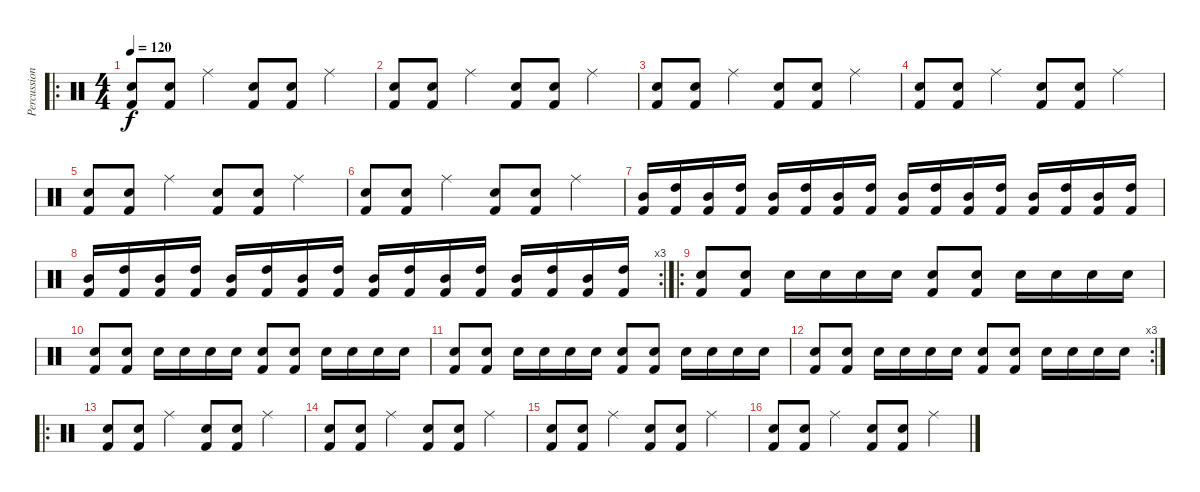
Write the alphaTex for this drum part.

\track ("Percussion" "Percussion") {instrument percussion}
\staff {score}
\articulation defaults
\ro
\ts (4 4)
\tempo 120
\clef neutral
\ks c
("Electric Snare (hit)" "Kick (hit) 2").8{dy f} ("Electric Snare (hit)" "Kick (hit) 2").8 "Ride (middle)".4 ("Electric Snare (hit)" "Kick (hit) 2").8 ("Electric Snare (hit)" "Kick (hit) 2").8 "Ride (middle)".4 |
("Electric Snare (hit)" "Kick (hit) 2").8 ("Electric Snare (hit)" "Kick (hit) 2").8 "Ride (middle)".4 ("Electric Snare (hit)" "Kick (hit) 2").8 ("Electric Snare (hit)" "Kick (hit) 2").8 "Ride (middle)".4 |
("Electric Snare (hit)" "Kick (hit) 2").8 ("Electric Snare (hit)" "Kick (hit) 2").8 "Ride (middle)".4 ("Electric Snare (hit)" "Kick (hit) 2").8 ("Electric Snare (hit)" "Kick (hit) 2").8 "Ride (middle)".4 |
("Electric Snare (hit)" "Kick (hit) 2").8 ("Electric Snare (hit)" "Kick (hit) 2").8 "Ride (middle)".4 ("Electric Snare (hit)" "Kick (hit) 2").8 ("Electric Snare (hit)" "Kick (hit) 2").8 "Ride (middle)".4 |
("Electric Snare (hit)" "Kick (hit) 2").8 ("Electric Snare (hit)" "Kick (hit) 2").8 "Ride (middle)".4 ("Electric Snare (hit)" "Kick (hit) 2").8 ("Electric Snare (hit)" "Kick (hit) 2").8 "Ride (middle)".4 |
("Electric Snare (hit)" "Kick (hit) 2").8 ("Electric Snare (hit)" "Kick (hit) 2").8 "Ride (middle)".4 ("Electric Snare (hit)" "Kick (hit) 2").8 ("Electric Snare (hit)" "Kick (hit) 2").8 "Ride (middle)".4 |
("Kick (hit) 2" "Mid Tom (hit)").16 ("Kick (hit) 2" "High Tom (hit)").16 ("Kick (hit) 2" "Mid Tom (hit)").16 ("Kick (hit) 2" "High Tom (hit)").16 ("Kick (hit) 2" "Mid Tom (hit)").16 ("Kick (hit) 2" "High Tom (hit)").16 ("Kick (hit) 2" "Mid Tom (hit)").16 ("Kick (hit) 2" "High Tom (hit)").16 ("Kick (hit) 2" "Mid Tom (hit)").16 ("Kick (hit) 2" "High Tom (hit)").16 ("Kick (hit) 2" "Mid Tom (hit)").16 ("Kick (hit) 2" "High Tom (hit)").16 ("Kick (hit) 2" "Mid Tom (hit)").16 ("Kick (hit) 2" "High Tom (hit)").16 ("Kick (hit) 2" "Mid Tom (hit)").16 ("Kick (hit) 2" "High Tom (hit)").16 |
\rc 3
("Kick (hit) 2" "Mid Tom (hit)").16 ("Kick (hit) 2" "High Tom (hit)").16 ("Kick (hit) 2" "Mid Tom (hit)").16 ("Kick (hit) 2" "High Tom (hit)").16 ("Kick (hit) 2" "Mid Tom (hit)").16 ("Kick (hit) 2" "High Tom (hit)").16 ("Kick (hit) 2" "Mid Tom (hit)").16 ("Kick (hit) 2" "High Tom (hit)").16 ("Kick (hit) 2" "Mid Tom (hit)").16 ("Kick (hit) 2" "High Tom (hit)").16 ("Kick (hit) 2" "Mid Tom (hit)").16 ("Kick (hit) 2" "High Tom (hit)").16 ("Kick (hit) 2" "Mid Tom (hit)").16 ("Kick (hit) 2" "High Tom (hit)").16 ("Kick (hit) 2" "Mid Tom (hit)").16 ("Kick (hit) 2" "High Tom (hit)").16 |
\ro
("Electric Snare (hit)" "Kick (hit) 2").8 ("Electric Snare (hit)" "Kick (hit) 2").8 "Electric Snare (hit)".16 "Electric Snare (hit)".16 "Electric Snare (hit)".16 "Electric Snare (hit)".16 ("Electric Snare (hit)" "Kick (hit) 2").8 ("Electric Snare (hit)" "Kick (hit) 2").8 "Electric Snare (hit)".16 "Electric Snare (hit)".16 "Electric Snare (hit)".16 "Electric Snare (hit)".16 |
("Electric Snare (hit)" "Kick (hit) 2").8 ("Electric Snare (hit)" "Kick (hit) 2").8 "Electric Snare (hit)".16 "Electric Snare (hit)".16 "Electric Snare (hit)".16 "Electric Snare (hit)".16 ("Electric Snare (hit)" "Kick (hit) 2").8 ("Electric Snare (hit)" "Kick (hit) 2").8 "Electric Snare (hit)".16 "Electric Snare (hit)".16 "Electric Snare (hit)".16 "Electric Snare (hit)".16 |
("Electric Snare (hit)" "Kick (hit) 2").8 ("Electric Snare (hit)" "Kick (hit) 2").8 "Electric Snare (hit)".16 "Electric Snare (hit)".16 "Electric Snare (hit)".16 "Electric Snare (hit)".16 ("Electric Snare (hit)" "Kick (hit) 2").8 ("Electric Snare (hit)" "Kick (hit) 2").8 "Electric Snare (hit)".16 "Electric Snare (hit)".16 "Electric Snare (hit)".16 "Electric Snare (hit)".16 |
\rc 3
("Electric Snare (hit)" "Kick (hit) 2").8 ("Electric Snare (hit)" "Kick (hit) 2").8 "Electric Snare (hit)".16 "Electric Snare (hit)".16 "Electric Snare (hit)".16 "Electric Snare (hit)".16 ("Electric Snare (hit)" "Kick (hit) 2").8 ("Electric Snare (hit)" "Kick (hit) 2").8 "Electric Snare (hit)".16 "Electric Snare (hit)".16 "Electric Snare (hit)".16 "Electric Snare (hit)".16 |
\ro
("Electric Snare (hit)" "Kick (hit) 2").8 ("Electric Snare (hit)" "Kick (hit) 2").8 "Ride (middle)".4 ("Electric Snare (hit)" "Kick (hit) 2").8 ("Electric Snare (hit)" "Kick (hit) 2").8 "Ride (middle)".4 |
("Electric Snare (hit)" "Kick (hit) 2").8 ("Electric Snare (hit)" "Kick (hit) 2").8 "Ride (middle)".4 ("Electric Snare (hit)" "Kick (hit) 2").8 ("Electric Snare (hit)" "Kick (hit) 2").8 "Ride (middle)".4 |
("Electric Snare (hit)" "Kick (hit) 2").8 ("Electric Snare (hit)" "Kick (hit) 2").8 "Ride (middle)".4 ("Electric Snare (hit)" "Kick (hit) 2").8 ("Electric Snare (hit)" "Kick (hit) 2").8 "Ride (middle)".4 |
("Electric Snare (hit)" "Kick (hit) 2").8 ("Electric Snare (hit)" "Kick (hit) 2").8 "Ride (middle)".4 ("Electric Snare (hit)" "Kick (hit) 2").8 ("Electric Snare (hit)" "Kick (hit) 2").8 "Ride (middle)".4
